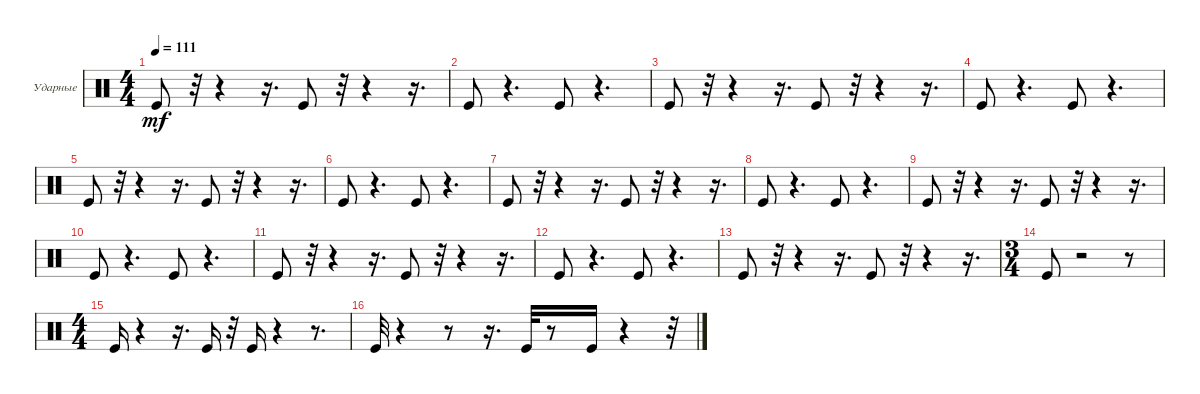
\bracketExtendMode groupsimilarinstruments
\firstSystemTrackNameOrientation horizontal
\otherSystemsTrackNameOrientation horizontal
\track ("Ударные" "Ударные") {instrument percussion}
\staff {score}
\articulation defaults
\ts (4 4)
\tempo 111
\clef neutral
\ks c "Kick (hit)".8{dy mf}
r.32 r.4 r.16{d} "Kick (hit)".8 r.32 r.4 r.16{d} |
"Kick (hit)".8 r.4{d} "Kick (hit)".8 r.4{d} |
"Kick (hit)".8 r.32 r.4 r.16{d} "Kick (hit)".8 r.32 r.4 r.16{d} |
"Kick (hit)".8 r.4{d} "Kick (hit)".8 r.4{d} |
"Kick (hit)".8 r.32 r.4 r.16{d} "Kick (hit)".8 r.32 r.4 r.16{d} |
"Kick (hit)".8 r.4{d} "Kick (hit)".8 r.4{d} |
"Kick (hit)".8 r.32 r.4 r.16{d} "Kick (hit)".8 r.32 r.4 r.16{d} |
"Kick (hit)".8 r.4{d} "Kick (hit)".8 r.4{d} |
"Kick (hit)".8 r.32 r.4 r.16{d} "Kick (hit)".8 r.32 r.4 r.16{d} |
"Kick (hit)".8 r.4{d} "Kick (hit)".8 r.4{d} |
"Kick (hit)".8 r.32 r.4 r.16{d} "Kick (hit)".8 r.32 r.4 r.16{d} |
"Kick (hit)".8 r.4{d} "Kick (hit)".8 r.4{d} |
"Kick (hit)".8 r.32 r.4 r.16{d} "Kick (hit)".8 r.32 r.4 r.16{d} |
\ts (3 4)
"Kick (hit)".8 r.2 r.8 |
\ts (4 4)
"Kick (hit)".16 r.4 r.16{d} "Kick (hit)".16 r.32 "Kick (hit)".16 r.4 r.8{d} |
"Kick (hit)".32 r.4 r.8 r.16{d} "Kick (hit)".32 r.8 "Kick (hit)".16 r.4 r.32
